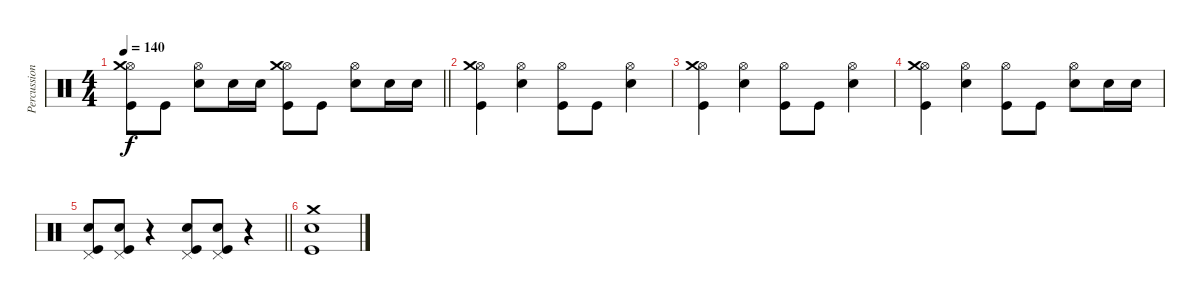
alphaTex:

\track ("Percussion" "Percussion") {instrument percussion}
\staff {score}
\articulation defaults
\ts (4 4)
\tempo 140
\clef neutral
\barLineRight lightlight
\ks c
("Hi-Hat (open)" "Kick (hit)" "Crash medium (hit)").8{dy f} "Kick (hit)".8 ("Hi-Hat (open)" "Electric Snare (hit)").8 "Electric Snare (hit)".16 "Electric Snare (hit)".16 ("Hi-Hat (open)" "Kick (hit)" "Crash medium (hit)").8 "Kick (hit)".8 ("Hi-Hat (open)" "Electric Snare (hit)").8 "Electric Snare (hit)".16 "Electric Snare (hit)".16 |
("Hi-Hat (open)" "Kick (hit)" "Crash medium (hit)").4 ("Hi-Hat (open)" "Electric Snare (hit)").4 ("Hi-Hat (open)" "Kick (hit)").8 "Kick (hit)".8 ("Hi-Hat (open)" "Electric Snare (hit)").4 |
("Hi-Hat (open)" "Kick (hit)" "Crash medium (hit)").4 ("Hi-Hat (open)" "Electric Snare (hit)").4 ("Hi-Hat (open)" "Kick (hit)").8 "Kick (hit)".8 ("Hi-Hat (open)" "Electric Snare (hit)").4 |
("Hi-Hat (open)" "Kick (hit)" "Crash medium (hit)").4 ("Hi-Hat (open)" "Electric Snare (hit)").4 ("Hi-Hat (open)" "Kick (hit)").8 "Kick (hit)".8 ("Hi-Hat (open)" "Electric Snare (hit)").8 "Electric Snare (hit)".16 "Electric Snare (hit)".16 |
\barLineRight lightlight
("Pedal Hi-Hat (hit)" "Electric Snare (hit)" "Kick (hit)").8 ("Pedal Hi-Hat (hit)" "Electric Snare (hit)" "Kick (hit)").8 r.4 ("Pedal Hi-Hat (hit)" "Electric Snare (hit)" "Kick (hit)").8 ("Pedal Hi-Hat (hit)" "Electric Snare (hit)" "Kick (hit)").8 r.4 |
("Electric Snare (hit)" "Kick (hit)" "Crash medium (hit)").1
